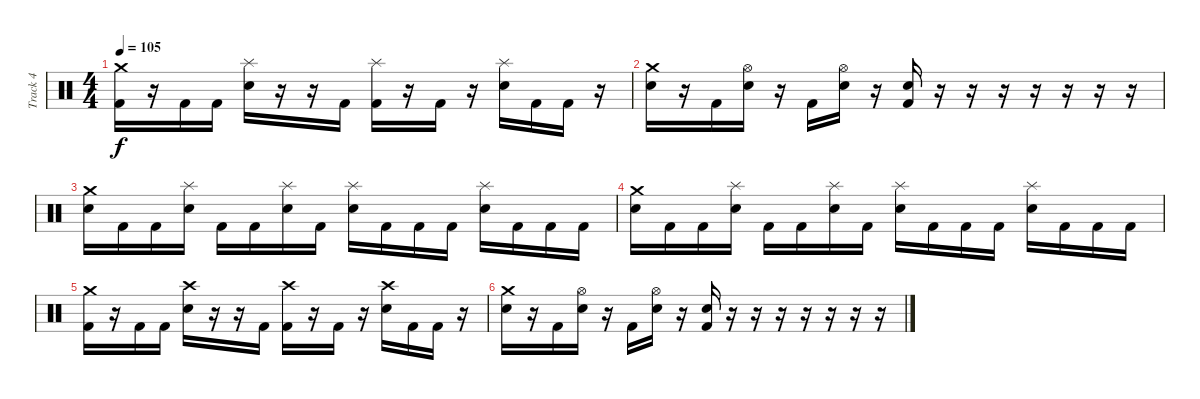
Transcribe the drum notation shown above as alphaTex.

\track ("Track 4" "Track 4") {instrument percussion}
\staff {score}
\articulation defaults
\ts (4 4)
\tempo 105
\clef neutral
\ks c
("Crash medium (hit)" "Kick (hit) 2").16{dy f} r.16 "Kick (hit) 2".16 "Kick (hit) 2".16 ("Splash (hit)" "Electric Snare (hit)").16 r.16 r.16 "Kick (hit) 2".16 ("Splash (hit)" "Kick (hit) 2").16 r.16 "Kick (hit) 2".16 r.16 ("Splash (hit)" "Electric Snare (hit)").16 "Kick (hit) 2".16 "Kick (hit) 2".16 r.16 |
("Crash medium (hit)" "Electric Snare (hit)").16 r.16 "Kick (hit) 2".16 ("Hi-Hat (open)" "Electric Snare (hit)").16 r.16 "Kick (hit) 2".16 ("Hi-Hat (open)" "Electric Snare (hit)").16 r.16 ("Electric Snare (hit)" "Kick (hit) 2").16 r.16 r.16 r.16 r.16 r.16 r.16 r.16 |
("Crash medium (hit)" "Electric Snare (hit)").16 "Kick (hit) 2".16 "Kick (hit) 2".16 ("Splash (hit)" "Electric Snare (hit)").16 "Kick (hit) 2".16 "Kick (hit) 2".16 ("Splash (hit)" "Electric Snare (hit)").16 "Kick (hit) 2".16 ("Splash (hit)" "Electric Snare (hit)").16 "Kick (hit) 2".16 "Kick (hit) 2".16 "Kick (hit) 2".16 ("Splash (hit)" "Electric Snare (hit)").16 "Kick (hit) 2".16 "Kick (hit) 2".16 "Kick (hit) 2".16 |
("Crash medium (hit)" "Electric Snare (hit)").16 "Kick (hit) 2".16 "Kick (hit) 2".16 ("Splash (hit)" "Electric Snare (hit)").16 "Kick (hit) 2".16 "Kick (hit) 2".16 ("Splash (hit)" "Electric Snare (hit)").16 "Kick (hit) 2".16 ("Splash (hit)" "Electric Snare (hit)").16 "Kick (hit) 2".16 "Kick (hit) 2".16 "Kick (hit) 2".16 ("Splash (hit)" "Electric Snare (hit)").16 "Kick (hit) 2".16 "Kick (hit) 2".16 "Kick (hit) 2".16 |
("Crash medium (hit)" "Kick (hit) 2").16 r.16 "Kick (hit) 2".16 "Kick (hit) 2".16 ("Crash high (hit)" "Electric Snare (hit)").16 r.16 r.16 "Kick (hit) 2".16 ("Crash high (hit)" "Kick (hit) 2").16 r.16 "Kick (hit) 2".16 r.16 ("Crash high (hit)" "Electric Snare (hit)").16 "Kick (hit) 2".16 "Kick (hit) 2".16 r.16 |
("Crash medium (hit)" "Electric Snare (hit)").16 r.16 "Kick (hit) 2".16 ("Hi-Hat (open)" "Electric Snare (hit)").16 r.16 "Kick (hit) 2".16 ("Hi-Hat (open)" "Electric Snare (hit)").16 r.16 ("Electric Snare (hit)" "Kick (hit) 2").16 r.16 r.16 r.16 r.16 r.16 r.16 r.16
